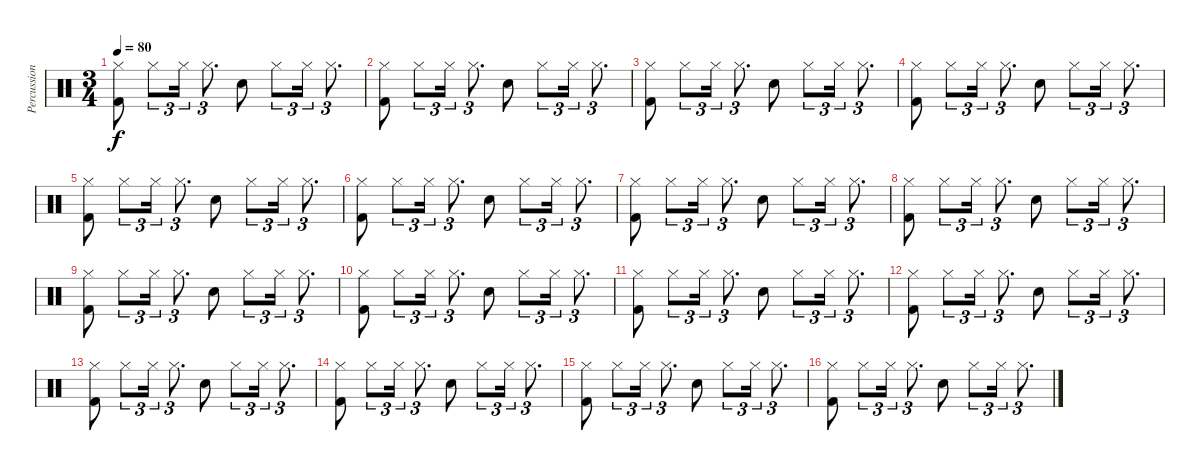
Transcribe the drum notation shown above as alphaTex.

\track ("Percussion" "Percussion") {instrument percussion}
\staff {score}
\articulation defaults
\ts (3 4)
\tempo 80
\clef neutral
\ks c
("Hi-Hat (closed)" "Kick (hit) 2").8{dy f} "Hi-Hat (closed)".8{tu (3 2)} "Hi-Hat (closed)".16{tu (3 2)} "Hi-Hat (closed)".8{d tu (3 2)} "Snare (hit) 2".8 "Hi-Hat (closed)".8{tu (3 2)} "Hi-Hat (closed)".16{tu (3 2)} "Hi-Hat (closed)".8{d tu (3 2)} |
("Hi-Hat (closed)" "Kick (hit) 2").8 "Hi-Hat (closed)".8{tu (3 2)} "Hi-Hat (closed)".16{tu (3 2)} "Hi-Hat (closed)".8{d tu (3 2)} "Snare (hit) 2".8 "Hi-Hat (closed)".8{tu (3 2)} "Hi-Hat (closed)".16{tu (3 2)} "Hi-Hat (closed)".8{d tu (3 2)} |
("Hi-Hat (closed)" "Kick (hit) 2").8 "Hi-Hat (closed)".8{tu (3 2)} "Hi-Hat (closed)".16{tu (3 2)} "Hi-Hat (closed)".8{d tu (3 2)} "Snare (hit) 2".8 "Hi-Hat (closed)".8{tu (3 2)} "Hi-Hat (closed)".16{tu (3 2)} "Hi-Hat (closed)".8{d tu (3 2)} |
("Hi-Hat (closed)" "Kick (hit) 2").8 "Hi-Hat (closed)".8{tu (3 2)} "Hi-Hat (closed)".16{tu (3 2)} "Hi-Hat (closed)".8{d tu (3 2)} "Snare (hit) 2".8 "Hi-Hat (closed)".8{tu (3 2)} "Hi-Hat (closed)".16{tu (3 2)} "Hi-Hat (closed)".8{d tu (3 2)} |
("Hi-Hat (closed)" "Kick (hit) 2").8 "Hi-Hat (closed)".8{tu (3 2)} "Hi-Hat (closed)".16{tu (3 2)} "Hi-Hat (closed)".8{d tu (3 2)} "Snare (hit) 2".8 "Hi-Hat (closed)".8{tu (3 2)} "Hi-Hat (closed)".16{tu (3 2)} "Hi-Hat (closed)".8{d tu (3 2)} |
("Hi-Hat (closed)" "Kick (hit) 2").8 "Hi-Hat (closed)".8{tu (3 2)} "Hi-Hat (closed)".16{tu (3 2)} "Hi-Hat (closed)".8{d tu (3 2)} "Snare (hit) 2".8 "Hi-Hat (closed)".8{tu (3 2)} "Hi-Hat (closed)".16{tu (3 2)} "Hi-Hat (closed)".8{d tu (3 2)} |
("Hi-Hat (closed)" "Kick (hit) 2").8 "Hi-Hat (closed)".8{tu (3 2)} "Hi-Hat (closed)".16{tu (3 2)} "Hi-Hat (closed)".8{d tu (3 2)} "Snare (hit) 2".8 "Hi-Hat (closed)".8{tu (3 2)} "Hi-Hat (closed)".16{tu (3 2)} "Hi-Hat (closed)".8{d tu (3 2)} |
("Hi-Hat (closed)" "Kick (hit) 2").8 "Hi-Hat (closed)".8{tu (3 2)} "Hi-Hat (closed)".16{tu (3 2)} "Hi-Hat (closed)".8{d tu (3 2)} "Snare (hit) 2".8 "Hi-Hat (closed)".8{tu (3 2)} "Hi-Hat (closed)".16{tu (3 2)} "Hi-Hat (closed)".8{d tu (3 2)} |
("Hi-Hat (closed)" "Kick (hit) 2").8 "Hi-Hat (closed)".8{tu (3 2)} "Hi-Hat (closed)".16{tu (3 2)} "Hi-Hat (closed)".8{d tu (3 2)} "Snare (hit) 2".8 "Hi-Hat (closed)".8{tu (3 2)} "Hi-Hat (closed)".16{tu (3 2)} "Hi-Hat (closed)".8{d tu (3 2)} |
("Hi-Hat (closed)" "Kick (hit) 2").8 "Hi-Hat (closed)".8{tu (3 2)} "Hi-Hat (closed)".16{tu (3 2)} "Hi-Hat (closed)".8{d tu (3 2)} "Snare (hit) 2".8 "Hi-Hat (closed)".8{tu (3 2)} "Hi-Hat (closed)".16{tu (3 2)} "Hi-Hat (closed)".8{d tu (3 2)} |
("Hi-Hat (closed)" "Kick (hit) 2").8 "Hi-Hat (closed)".8{tu (3 2)} "Hi-Hat (closed)".16{tu (3 2)} "Hi-Hat (closed)".8{d tu (3 2)} "Snare (hit) 2".8 "Hi-Hat (closed)".8{tu (3 2)} "Hi-Hat (closed)".16{tu (3 2)} "Hi-Hat (closed)".8{d tu (3 2)} |
("Hi-Hat (closed)" "Kick (hit) 2").8 "Hi-Hat (closed)".8{tu (3 2)} "Hi-Hat (closed)".16{tu (3 2)} "Hi-Hat (closed)".8{d tu (3 2)} "Snare (hit) 2".8 "Hi-Hat (closed)".8{tu (3 2)} "Hi-Hat (closed)".16{tu (3 2)} "Hi-Hat (closed)".8{d tu (3 2)} |
("Hi-Hat (closed)" "Kick (hit) 2").8 "Hi-Hat (closed)".8{tu (3 2)} "Hi-Hat (closed)".16{tu (3 2)} "Hi-Hat (closed)".8{d tu (3 2)} "Snare (hit) 2".8 "Hi-Hat (closed)".8{tu (3 2)} "Hi-Hat (closed)".16{tu (3 2)} "Hi-Hat (closed)".8{d tu (3 2)} |
("Hi-Hat (closed)" "Kick (hit) 2").8 "Hi-Hat (closed)".8{tu (3 2)} "Hi-Hat (closed)".16{tu (3 2)} "Hi-Hat (closed)".8{d tu (3 2)} "Snare (hit) 2".8 "Hi-Hat (closed)".8{tu (3 2)} "Hi-Hat (closed)".16{tu (3 2)} "Hi-Hat (closed)".8{d tu (3 2)} |
("Hi-Hat (closed)" "Kick (hit) 2").8 "Hi-Hat (closed)".8{tu (3 2)} "Hi-Hat (closed)".16{tu (3 2)} "Hi-Hat (closed)".8{d tu (3 2)} "Snare (hit) 2".8 "Hi-Hat (closed)".8{tu (3 2)} "Hi-Hat (closed)".16{tu (3 2)} "Hi-Hat (closed)".8{d tu (3 2)} |
("Hi-Hat (closed)" "Kick (hit) 2").8 "Hi-Hat (closed)".8{tu (3 2)} "Hi-Hat (closed)".16{tu (3 2)} "Hi-Hat (closed)".8{d tu (3 2)} "Snare (hit) 2".8 "Hi-Hat (closed)".8{tu (3 2)} "Hi-Hat (closed)".16{tu (3 2)} "Hi-Hat (closed)".8{d tu (3 2)}
